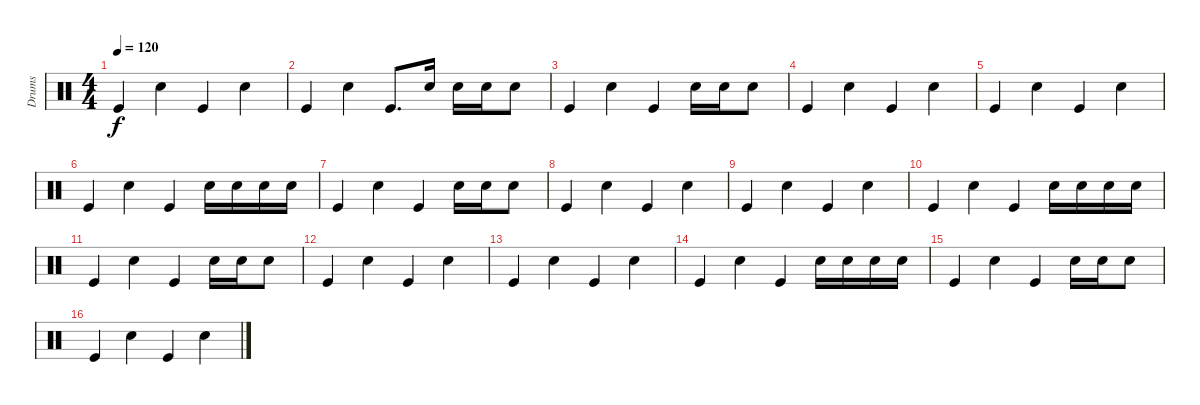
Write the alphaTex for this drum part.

\track ("Drums" "Drums") {instrument percussion}
\staff {score}
\articulation defaults
\ts (4 4)
\tempo 120
\clef neutral
\ks c "Kick (hit)".4{dy f} "Snare (hit) 2".4 "Kick (hit)".4 "Snare (hit) 2".4
|
"Kick (hit)".4 "Snare (hit) 2".4 "Kick (hit)".8{d} "Snare (hit) 2".16 "Snare (hit) 2".16 "Snare (hit) 2".16 "Snare (hit) 2".8 |
"Kick (hit)".4 "Snare (hit) 2".4 "Kick (hit)".4 "Snare (hit) 2".16 "Snare (hit) 2".16 "Snare (hit) 2".8 |
"Kick (hit)".4 "Snare (hit) 2".4 "Kick (hit)".4 "Snare (hit) 2".4 |
"Kick (hit)".4 "Snare (hit) 2".4 "Kick (hit)".4 "Snare (hit) 2".4 |
"Kick (hit)".4 "Snare (hit) 2".4 "Kick (hit)".4 "Snare (hit) 2".16 "Snare (hit) 2".16 "Snare (hit) 2".16 "Snare (hit) 2".16 |
"Kick (hit)".4 "Snare (hit) 2".4 "Kick (hit)".4 "Snare (hit) 2".16 "Snare (hit) 2".16 "Snare (hit) 2".8 |
"Kick (hit)".4 "Snare (hit) 2".4 "Kick (hit)".4 "Snare (hit) 2".4 |
"Kick (hit)".4 "Snare (hit) 2".4 "Kick (hit)".4 "Snare (hit) 2".4 |
"Kick (hit)".4 "Snare (hit) 2".4 "Kick (hit)".4 "Snare (hit) 2".16 "Snare (hit) 2".16 "Snare (hit) 2".16 "Snare (hit) 2".16 |
"Kick (hit)".4 "Snare (hit) 2".4 "Kick (hit)".4 "Snare (hit) 2".16 "Snare (hit) 2".16 "Snare (hit) 2".8 |
"Kick (hit)".4 "Snare (hit) 2".4 "Kick (hit)".4 "Snare (hit) 2".4 |
"Kick (hit)".4 "Snare (hit) 2".4 "Kick (hit)".4 "Snare (hit) 2".4 |
"Kick (hit)".4 "Snare (hit) 2".4 "Kick (hit)".4 "Snare (hit) 2".16 "Snare (hit) 2".16 "Snare (hit) 2".16 "Snare (hit) 2".16 |
"Kick (hit)".4 "Snare (hit) 2".4 "Kick (hit)".4 "Snare (hit) 2".16 "Snare (hit) 2".16 "Snare (hit) 2".8 |
"Kick (hit)".4 "Snare (hit) 2".4 "Kick (hit)".4 "Snare (hit) 2".4
